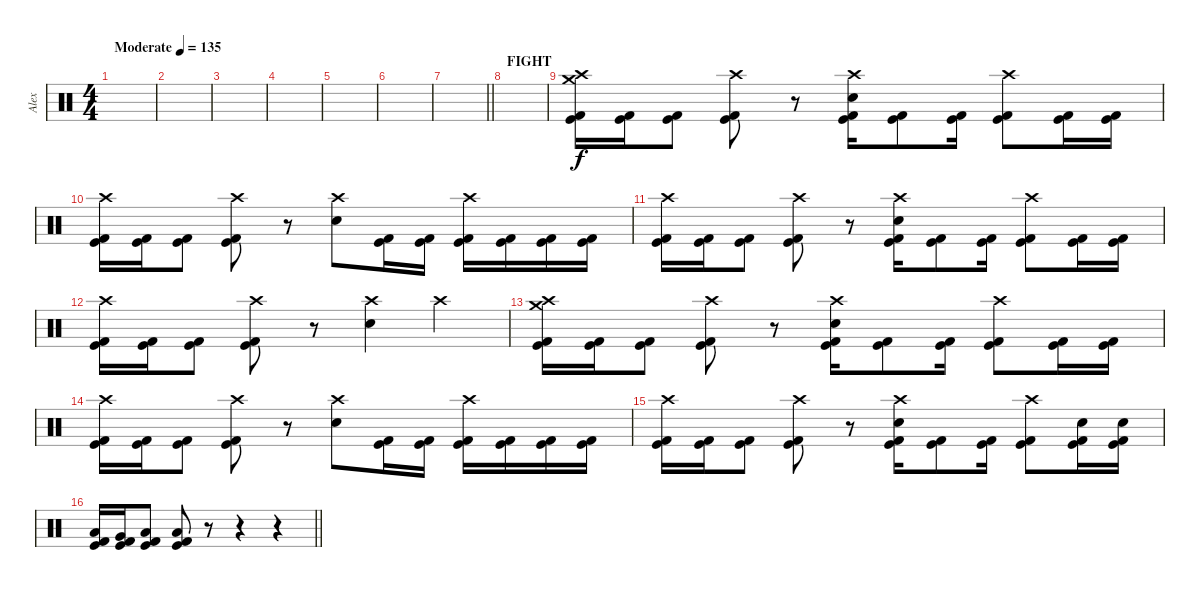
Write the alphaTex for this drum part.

\track ("Alex" "Alex") {instrument percussion}
\staff {score}
\articulation defaults
\ts (4 4)
\tempo (135 "Moderate")
\clef neutral
\ks c
|
|
|
|
|
|
\barLineRight lightlight
|
\section ("" "FIGHT")
|
("Crash medium (hit)" "Crash high (hit)" "Kick (hit) 2" "Kick (hit)").16 ("Kick (hit) 2" "Kick (hit)").16 ("Kick (hit) 2" "Kick (hit)").8 ("Crash high (hit)" "Kick (hit) 2" "Kick (hit)").8 r.8 ("Crash high (hit)" "Electric Snare (hit)" "Kick (hit) 2" "Kick (hit)").16 ("Kick (hit) 2" "Kick (hit)").8 ("Kick (hit) 2" "Kick (hit)").16 ("Crash high (hit)" "Kick (hit) 2" "Kick (hit)").8 ("Kick (hit) 2" "Kick (hit)").16 ("Kick (hit) 2" "Kick (hit)").16 |
("Crash high (hit)" "Kick (hit) 2" "Kick (hit)").16 ("Kick (hit) 2" "Kick (hit)").16 ("Kick (hit) 2" "Kick (hit)").8 ("Crash high (hit)" "Kick (hit) 2" "Kick (hit)").8 r.8 ("Crash high (hit)" "Electric Snare (hit)").8 ("Kick (hit) 2" "Kick (hit)").16 ("Kick (hit) 2" "Kick (hit)").16 ("Crash high (hit)" "Kick (hit) 2" "Kick (hit)").16 ("Kick (hit) 2" "Kick (hit)").16 ("Kick (hit) 2" "Kick (hit)").16 ("Kick (hit) 2" "Kick (hit)").16 |
("Crash high (hit)" "Kick (hit) 2" "Kick (hit)").16 ("Kick (hit) 2" "Kick (hit)").16 ("Kick (hit) 2" "Kick (hit)").8 ("Crash high (hit)" "Kick (hit) 2" "Kick (hit)").8 r.8 ("Crash high (hit)" "Electric Snare (hit)" "Kick (hit) 2" "Kick (hit)").16 ("Kick (hit) 2" "Kick (hit)").8 ("Kick (hit) 2" "Kick (hit)").16 ("Crash high (hit)" "Kick (hit) 2" "Kick (hit)").8 ("Kick (hit) 2" "Kick (hit)").16 ("Kick (hit) 2" "Kick (hit)").16 |
("Crash high (hit)" "Kick (hit) 2" "Kick (hit)").16 ("Kick (hit) 2" "Kick (hit)").16 ("Kick (hit) 2" "Kick (hit)").8 ("Crash high (hit)" "Kick (hit) 2" "Kick (hit)").8 r.8 ("Crash high (hit)" "Electric Snare (hit)").4 "Crash high (hit)".4 |
("Crash medium (hit)" "Crash high (hit)" "Kick (hit) 2" "Kick (hit)").16 ("Kick (hit) 2" "Kick (hit)").16 ("Kick (hit) 2" "Kick (hit)").8 ("Crash high (hit)" "Kick (hit) 2" "Kick (hit)").8 r.8 ("Crash high (hit)" "Electric Snare (hit)" "Kick (hit) 2" "Kick (hit)").16 ("Kick (hit) 2" "Kick (hit)").8 ("Kick (hit) 2" "Kick (hit)").16 ("Crash high (hit)" "Kick (hit) 2" "Kick (hit)").8 ("Kick (hit) 2" "Kick (hit)").16 ("Kick (hit) 2" "Kick (hit)").16 |
("Crash high (hit)" "Kick (hit) 2" "Kick (hit)").16 ("Kick (hit) 2" "Kick (hit)").16 ("Kick (hit) 2" "Kick (hit)").8 ("Crash high (hit)" "Kick (hit) 2" "Kick (hit)").8 r.8 ("Crash high (hit)" "Electric Snare (hit)").8 ("Kick (hit) 2" "Kick (hit)").16 ("Kick (hit) 2" "Kick (hit)").16 ("Crash high (hit)" "Kick (hit) 2" "Kick (hit)").16 ("Kick (hit) 2" "Kick (hit)").16 ("Kick (hit) 2" "Kick (hit)").16 ("Kick (hit) 2" "Kick (hit)").16 |
("Crash high (hit)" "Kick (hit) 2" "Kick (hit)").16 ("Kick (hit) 2" "Kick (hit)").16 ("Kick (hit) 2" "Kick (hit)").8 ("Crash high (hit)" "Kick (hit) 2" "Kick (hit)").8 r.8 ("Crash high (hit)" "Electric Snare (hit)" "Kick (hit) 2" "Kick (hit)").16 ("Kick (hit) 2" "Kick (hit)").8 ("Kick (hit) 2" "Kick (hit)").16 ("Crash high (hit)" "Kick (hit) 2" "Kick (hit)").8 ("Electric Snare (hit)" "Kick (hit) 2" "Kick (hit)").16 ("Electric Snare (hit)" "Kick (hit) 2" "Kick (hit)").16 |
\barLineRight lightlight
("Low Tom (hit)" "Kick (hit) 2" "Kick (hit)").16 ("Very Low Tom (hit)" "Kick (hit) 2" "Kick (hit)").16 ("Low Floor Tom (hit)" "Kick (hit) 2" "Kick (hit)").8 ("Low Floor Tom (hit)" "Kick (hit) 2" "Kick (hit)").8 r.8 r.4 r.4
